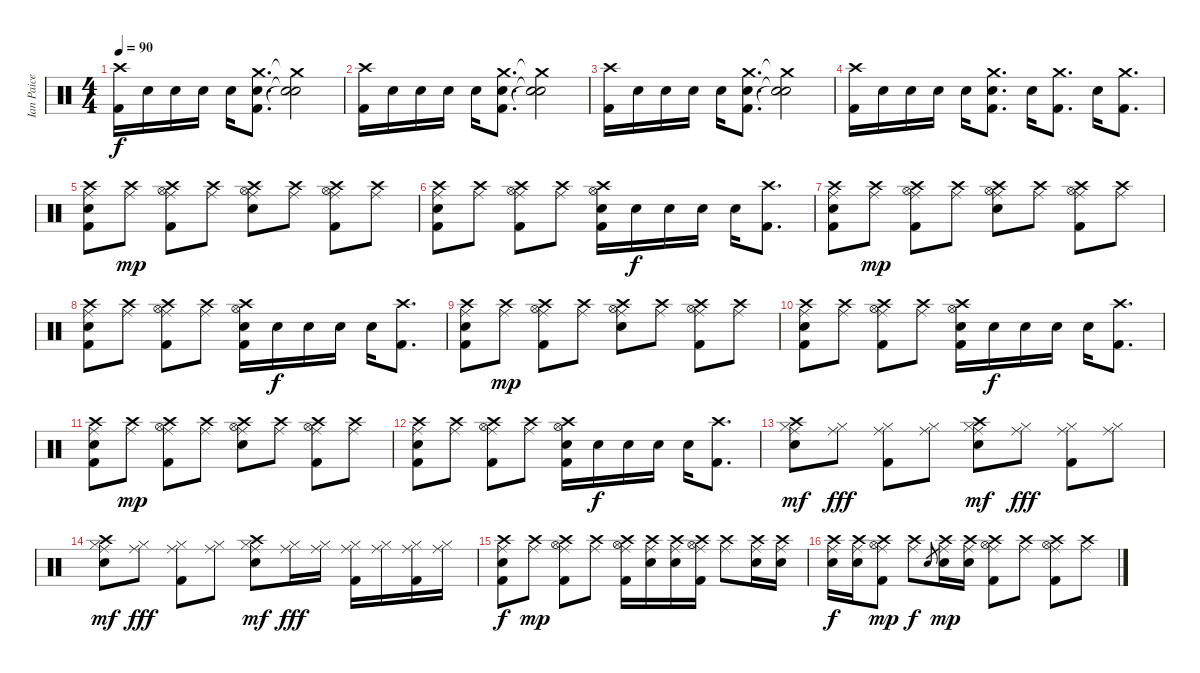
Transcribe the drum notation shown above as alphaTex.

\track ("Ian Paice (Percusion)" "Ian Paice ") {instrument percussion}
\staff {score}
\articulation defaults
\ts (4 4)
\tempo 90
\clef neutral
\ks c
("Crash high (hit)" "Kick (hit) 2").16{dy f} "Electric Snare (hit)".16 "Electric Snare (hit)".16 "Electric Snare (hit)".16 "Electric Snare (hit)".16 ("Crash medium (hit)" "Electric Snare (hit)" "Kick (hit) 2").8{d} ("Crash medium (hit)"{t} "Snare (hit)"{t} "Snare (hit)"{t}).2 |
("Crash high (hit)" "Kick (hit) 2").16 "Electric Snare (hit)".16 "Electric Snare (hit)".16 "Electric Snare (hit)".16 "Electric Snare (hit)".16 ("Crash medium (hit)" "Electric Snare (hit)" "Kick (hit) 2").8{d} ("Crash medium (hit)"{t} "Snare (hit)"{t} "Snare (hit)"{t}).2 |
("Crash high (hit)" "Kick (hit) 2").16 "Electric Snare (hit)".16 "Electric Snare (hit)".16 "Electric Snare (hit)".16 "Electric Snare (hit)".16 ("Crash medium (hit)" "Electric Snare (hit)" "Kick (hit) 2").8{d} ("Crash medium (hit)"{t} "Snare (hit)"{t} "Snare (hit)"{t}).2 |
("Crash high (hit)" "Kick (hit) 2").16 "Electric Snare (hit)".16 "Electric Snare (hit)".16 "Electric Snare (hit)".16 "Electric Snare (hit)".16 ("Crash medium (hit)" "Electric Snare (hit)" "Kick (hit) 2").8{d} "Electric Snare (hit)".16 ("Crash medium (hit)" "Kick (hit) 2").8{d} "Electric Snare (hit)".16 ("Crash medium (hit)" "Kick (hit) 2").8{d} |
("Kick (hit) 2" "Crash high (hit)" "Ride (middle)" "Electric Snare (hit)").8 ("Crash high (hit)" "Ride (middle)").8{dy mp} ("Hi-Hat (open)" "Crash high (hit)" "Ride (middle)" "Kick (hit) 2").8 ("Crash high (hit)" "Ride (middle)").8 ("Hi-Hat (open)" "Crash high (hit)" "Ride (middle)" "Electric Snare (hit)").8 ("Crash high (hit)" "Ride (middle)").8 ("Hi-Hat (open)" "Crash high (hit)" "Ride (middle)" "Kick (hit) 2").8 ("Crash high (hit)" "Ride (middle)").8 |
("Kick (hit) 2" "Crash high (hit)" "Ride (middle)" "Electric Snare (hit)").8 ("Crash high (hit)" "Ride (middle)").8 ("Hi-Hat (open)" "Crash high (hit)" "Ride (middle)" "Kick (hit) 2").8 ("Crash high (hit)" "Ride (middle)").8 ("Crash high (hit)" "Hi-Hat (open)" "Kick (hit) 2" "Electric Snare (hit)").16 "Electric Snare (hit)".16{dy f} "Electric Snare (hit)".16 "Electric Snare (hit)".16 "Electric Snare (hit)".16 ("Crash high (hit)" "Kick (hit) 2").8{d} |
("Kick (hit) 2" "Crash high (hit)" "Ride (middle)" "Electric Snare (hit)").8 ("Crash high (hit)" "Ride (middle)").8{dy mp} ("Hi-Hat (open)" "Crash high (hit)" "Ride (middle)" "Kick (hit) 2").8 ("Crash high (hit)" "Ride (middle)").8 ("Hi-Hat (open)" "Crash high (hit)" "Ride (middle)" "Electric Snare (hit)").8 ("Crash high (hit)" "Ride (middle)").8 ("Hi-Hat (open)" "Crash high (hit)" "Ride (middle)" "Kick (hit) 2").8 ("Crash high (hit)" "Ride (middle)").8 |
("Kick (hit) 2" "Crash high (hit)" "Ride (middle)" "Electric Snare (hit)").8 ("Crash high (hit)" "Ride (middle)").8 ("Hi-Hat (open)" "Crash high (hit)" "Ride (middle)" "Kick (hit) 2").8 ("Crash high (hit)" "Ride (middle)").8 ("Crash high (hit)" "Hi-Hat (open)" "Kick (hit) 2" "Electric Snare (hit)").16 "Electric Snare (hit)".16{dy f} "Electric Snare (hit)".16 "Electric Snare (hit)".16 "Electric Snare (hit)".16 ("Crash high (hit)" "Kick (hit) 2").8{d} |
("Kick (hit) 2" "Crash high (hit)" "Ride (middle)" "Electric Snare (hit)").8 ("Crash high (hit)" "Ride (middle)").8{dy mp} ("Hi-Hat (open)" "Crash high (hit)" "Ride (middle)" "Kick (hit) 2").8 ("Crash high (hit)" "Ride (middle)").8 ("Hi-Hat (open)" "Crash high (hit)" "Ride (middle)" "Electric Snare (hit)").8 ("Crash high (hit)" "Ride (middle)").8 ("Hi-Hat (open)" "Crash high (hit)" "Ride (middle)" "Kick (hit) 2").8 ("Crash high (hit)" "Ride (middle)").8 |
("Kick (hit) 2" "Crash high (hit)" "Ride (middle)" "Electric Snare (hit)").8 ("Crash high (hit)" "Ride (middle)").8 ("Hi-Hat (open)" "Crash high (hit)" "Ride (middle)" "Kick (hit) 2").8 ("Crash high (hit)" "Ride (middle)").8 ("Crash high (hit)" "Hi-Hat (open)" "Kick (hit) 2" "Electric Snare (hit)").16 "Electric Snare (hit)".16{dy f} "Electric Snare (hit)".16 "Electric Snare (hit)".16 "Electric Snare (hit)".16 ("Crash high (hit)" "Kick (hit) 2").8{d} |
("Kick (hit) 2" "Crash high (hit)" "Ride (middle)" "Electric Snare (hit)").8 ("Crash high (hit)" "Ride (middle)").8{dy mp} ("Hi-Hat (open)" "Crash high (hit)" "Ride (middle)" "Kick (hit) 2").8 ("Crash high (hit)" "Ride (middle)").8 ("Hi-Hat (open)" "Crash high (hit)" "Ride (middle)" "Electric Snare (hit)").8 ("Crash high (hit)" "Ride (middle)").8 ("Hi-Hat (open)" "Crash high (hit)" "Ride (middle)" "Kick (hit) 2").8 ("Crash high (hit)" "Ride (middle)").8 |
("Kick (hit) 2" "Crash high (hit)" "Ride (middle)" "Electric Snare (hit)").8 ("Crash high (hit)" "Ride (middle)").8 ("Hi-Hat (open)" "Crash high (hit)" "Ride (middle)" "Kick (hit) 2").8 ("Crash high (hit)" "Ride (middle)").8 ("Crash high (hit)" "Hi-Hat (open)" "Kick (hit) 2" "Electric Snare (hit)").16 "Electric Snare (hit)".16{dy f} "Electric Snare (hit)".16 "Electric Snare (hit)".16 "Electric Snare (hit)".16 ("Crash high (hit)" "Kick (hit) 2").8{d} |
("Electric Snare (hit)" "Ride (middle)" "Hi-Hat (closed)" "Crash high (hit)").8{dy mf} ("Ride (middle)" "Hi-Hat (closed)").8{dy fff} ("Ride (middle)" "Hi-Hat (closed)" "Kick (hit) 2").8 ("Ride (middle)" "Hi-Hat (closed)").8 ("Electric Snare (hit)" "Ride (middle)" "Hi-Hat (closed)" "Crash high (hit)").8{dy mf} ("Ride (middle)" "Hi-Hat (closed)").8{dy fff} ("Ride (middle)" "Hi-Hat (closed)" "Kick (hit) 2").8 ("Ride (middle)" "Hi-Hat (closed)").8 |
("Electric Snare (hit)" "Ride (middle)" "Hi-Hat (closed)" "Crash high (hit)").8{dy mf} ("Ride (middle)" "Hi-Hat (closed)").8{dy fff} ("Ride (middle)" "Hi-Hat (closed)" "Kick (hit) 2").8 ("Ride (middle)" "Hi-Hat (closed)").8 ("Electric Snare (hit)" "Ride (middle)" "Hi-Hat (closed)" "Crash high (hit)").8{dy mf} ("Ride (middle)" "Hi-Hat (closed)").16{dy fff} ("Ride (middle)" "Hi-Hat (closed)").16 ("Ride (middle)" "Hi-Hat (closed)" "Kick (hit) 2").16 ("Ride (middle)" "Hi-Hat (closed)").16 ("Ride (middle)" "Hi-Hat (closed)" "Kick (hit) 2").16 ("Ride (middle)" "Hi-Hat (closed)").16 |
("Kick (hit) 2" "Crash high (hit)" "Ride (middle)" "Electric Snare (hit)").8{dy f} ("Crash high (hit)" "Ride (middle)").8{dy mp} ("Hi-Hat (open)" "Crash high (hit)" "Ride (middle)" "Kick (hit) 2").8 ("Crash high (hit)" "Ride (middle)").8 ("Hi-Hat (open)" "Crash high (hit)" "Ride (middle)" "Kick (hit) 2").16 ("Crash high (hit)" "Ride (middle)" "Electric Snare (hit)").16 ("Crash high (hit)" "Ride (middle)" "Electric Snare (hit)").16 ("Hi-Hat (open)" "Crash high (hit)" "Ride (middle)" "Kick (hit) 2").16 ("Crash high (hit)" "Ride (middle)").8 ("Crash high (hit)" "Ride (middle)" "Electric Snare (hit)").16 ("Crash high (hit)" "Ride (middle)" "Electric Snare (hit)").16 |
("Crash high (hit)" "Ride (middle)" "Electric Snare (hit)").16{dy f} ("Crash high (hit)" "Ride (middle)" "Electric Snare (hit)").16 ("Hi-Hat (open)" "Crash high (hit)" "Ride (middle)" "Kick (hit) 2").8{dy mp} ("Crash high (hit)" "Ride (middle)").8{dy f} "Electric Snare (hit)".8{gr} ("Crash high (hit)" "Ride (middle)" "Electric Snare (hit)").16{dy mp} ("Crash high (hit)" "Ride (middle)" "Electric Snare (hit)").16 ("Hi-Hat (open)" "Crash high (hit)" "Ride (middle)" "Kick (hit) 2").8 ("Crash high (hit)" "Ride (middle)").8 ("Hi-Hat (open)" "Crash high (hit)" "Ride (middle)" "Kick (hit) 2").8 ("Crash high (hit)" "Ride (middle)").8
